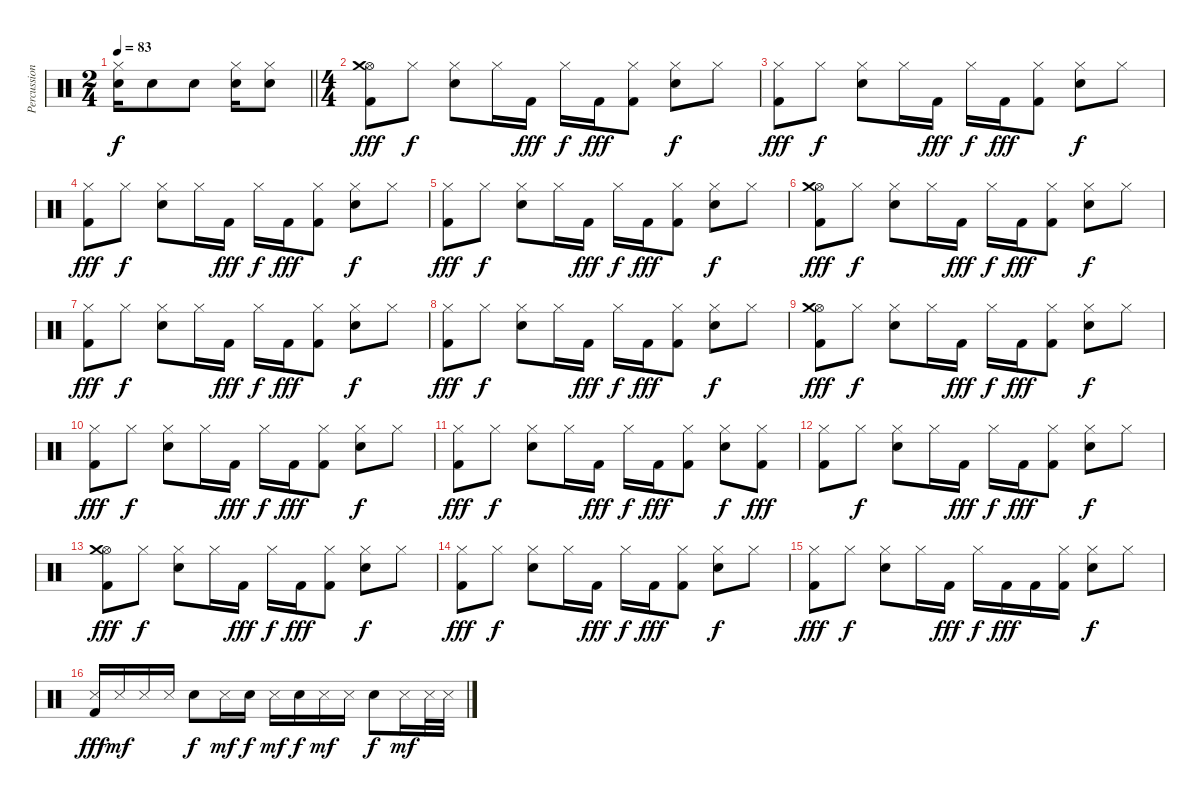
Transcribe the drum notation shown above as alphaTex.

\track ("Percussion" "Percussion") {instrument percussion}
\staff {score}
\articulation defaults
\ts (2 4)
\tempo 83
\clef neutral
\barLineRight lightlight
\ks c
("Electric Snare (hit)" "Hi-Hat (closed)").16{dy f} "Electric Snare (hit)".8 "Electric Snare (hit)".8 ("Electric Snare (hit)" "Hi-Hat (closed)").16 ("Electric Snare (hit)" "Hi-Hat (closed)").8 |
\ts (4 4)
("Kick (hit) 2" "Hi-Hat (open)" "Crash medium (hit)").8{dy fff} "Hi-Hat (closed)".8{dy f} ("Electric Snare (hit)" "Hi-Hat (closed)").8 "Hi-Hat (closed)".16 "Kick (hit) 2".16{dy fff} "Hi-Hat (closed)".16{dy f} "Kick (hit) 2".16{dy fff} ("Kick (hit) 2" "Hi-Hat (closed)").8 ("Electric Snare (hit)" "Hi-Hat (closed)").8{dy f} "Hi-Hat (closed)".8 |
("Kick (hit) 2" "Hi-Hat (closed)").8{dy fff} "Hi-Hat (closed)".8{dy f} ("Electric Snare (hit)" "Hi-Hat (closed)").8 "Hi-Hat (closed)".16 "Kick (hit) 2".16{dy fff} "Hi-Hat (closed)".16{dy f} "Kick (hit) 2".16{dy fff} ("Kick (hit) 2" "Hi-Hat (closed)").8 ("Electric Snare (hit)" "Hi-Hat (closed)").8{dy f} "Hi-Hat (closed)".8 |
("Kick (hit) 2" "Hi-Hat (closed)").8{dy fff} "Hi-Hat (closed)".8{dy f} ("Electric Snare (hit)" "Hi-Hat (closed)").8 "Hi-Hat (closed)".16 "Kick (hit) 2".16{dy fff} "Hi-Hat (closed)".16{dy f} "Kick (hit) 2".16{dy fff} ("Kick (hit) 2" "Hi-Hat (closed)").8 ("Electric Snare (hit)" "Hi-Hat (closed)").8{dy f} "Hi-Hat (closed)".8 |
("Kick (hit) 2" "Hi-Hat (closed)").8{dy fff} "Hi-Hat (closed)".8{dy f} ("Electric Snare (hit)" "Hi-Hat (closed)").8 "Hi-Hat (closed)".16 "Kick (hit) 2".16{dy fff} "Hi-Hat (closed)".16{dy f} "Kick (hit) 2".16{dy fff} ("Kick (hit) 2" "Hi-Hat (closed)").8 ("Electric Snare (hit)" "Hi-Hat (closed)").8{dy f} "Hi-Hat (closed)".8 |
("Kick (hit) 2" "Hi-Hat (open)" "Crash medium (hit)").8{dy fff} "Hi-Hat (closed)".8{dy f} ("Electric Snare (hit)" "Hi-Hat (closed)").8 "Hi-Hat (closed)".16 "Kick (hit) 2".16{dy fff} "Hi-Hat (closed)".16{dy f} "Kick (hit) 2".16{dy fff} ("Kick (hit) 2" "Hi-Hat (closed)").8 ("Electric Snare (hit)" "Hi-Hat (closed)").8{dy f} "Hi-Hat (closed)".8 |
("Kick (hit) 2" "Hi-Hat (closed)").8{dy fff} "Hi-Hat (closed)".8{dy f} ("Electric Snare (hit)" "Hi-Hat (closed)").8 "Hi-Hat (closed)".16 "Kick (hit) 2".16{dy fff} "Hi-Hat (closed)".16{dy f} "Kick (hit) 2".16{dy fff} ("Kick (hit) 2" "Hi-Hat (closed)").8 ("Electric Snare (hit)" "Hi-Hat (closed)").8{dy f} "Hi-Hat (closed)".8 |
("Kick (hit) 2" "Hi-Hat (closed)").8{dy fff} "Hi-Hat (closed)".8{dy f} ("Electric Snare (hit)" "Hi-Hat (closed)").8 "Hi-Hat (closed)".16 "Kick (hit) 2".16{dy fff} "Hi-Hat (closed)".16{dy f} "Kick (hit) 2".16{dy fff} ("Kick (hit) 2" "Hi-Hat (closed)").8 ("Electric Snare (hit)" "Hi-Hat (closed)").8{dy f} "Hi-Hat (closed)".8 |
("Kick (hit) 2" "Hi-Hat (open)" "Crash medium (hit)").8{dy fff} "Hi-Hat (closed)".8{dy f} ("Electric Snare (hit)" "Hi-Hat (closed)").8 "Hi-Hat (closed)".16 "Kick (hit) 2".16{dy fff} "Hi-Hat (closed)".16{dy f} "Kick (hit) 2".16{dy fff} ("Kick (hit) 2" "Hi-Hat (closed)").8 ("Electric Snare (hit)" "Hi-Hat (closed)").8{dy f} "Hi-Hat (closed)".8 |
("Kick (hit) 2" "Hi-Hat (closed)").8{dy fff} "Hi-Hat (closed)".8{dy f} ("Electric Snare (hit)" "Hi-Hat (closed)").8 "Hi-Hat (closed)".16 "Kick (hit) 2".16{dy fff} "Hi-Hat (closed)".16{dy f} "Kick (hit) 2".16{dy fff} ("Kick (hit) 2" "Hi-Hat (closed)").8 ("Electric Snare (hit)" "Hi-Hat (closed)").8{dy f} "Hi-Hat (closed)".8 |
("Kick (hit) 2" "Hi-Hat (closed)").8{dy fff} "Hi-Hat (closed)".8{dy f} ("Electric Snare (hit)" "Hi-Hat (closed)").8 "Hi-Hat (closed)".16 "Kick (hit) 2".16{dy fff} "Hi-Hat (closed)".16{dy f} "Kick (hit) 2".16{dy fff} ("Kick (hit) 2" "Hi-Hat (closed)").8 ("Electric Snare (hit)" "Hi-Hat (closed)").8{dy f} ("Kick (hit) 2" "Hi-Hat (closed)").8{dy fff} |
("Kick (hit) 2" "Hi-Hat (closed)").8 "Hi-Hat (closed)".8{dy f} ("Electric Snare (hit)" "Hi-Hat (closed)").8 "Hi-Hat (closed)".16 "Kick (hit) 2".16{dy fff} "Hi-Hat (closed)".16{dy f} "Kick (hit) 2".16{dy fff} ("Kick (hit) 2" "Hi-Hat (closed)").8 ("Electric Snare (hit)" "Hi-Hat (closed)").8{dy f} "Hi-Hat (closed)".8 |
("Kick (hit) 2" "Hi-Hat (open)" "Crash medium (hit)").8{dy fff} "Hi-Hat (closed)".8{dy f} ("Electric Snare (hit)" "Hi-Hat (closed)").8 "Hi-Hat (closed)".16 "Kick (hit) 2".16{dy fff} "Hi-Hat (closed)".16{dy f} "Kick (hit) 2".16{dy fff} ("Kick (hit) 2" "Hi-Hat (closed)").8 ("Electric Snare (hit)" "Hi-Hat (closed)").8{dy f} "Hi-Hat (closed)".8 |
("Kick (hit) 2" "Hi-Hat (closed)").8{dy fff} "Hi-Hat (closed)".8{dy f} ("Electric Snare (hit)" "Hi-Hat (closed)").8 "Hi-Hat (closed)".16 "Kick (hit) 2".16{dy fff} "Hi-Hat (closed)".16{dy f} "Kick (hit) 2".16{dy fff} ("Kick (hit) 2" "Hi-Hat (closed)").8 ("Electric Snare (hit)" "Hi-Hat (closed)").8{dy f} "Hi-Hat (closed)".8 |
("Kick (hit) 2" "Hi-Hat (closed)").8{dy fff} "Hi-Hat (closed)".8{dy f} ("Electric Snare (hit)" "Hi-Hat (closed)").8 "Hi-Hat (closed)".16 "Kick (hit) 2".16{dy fff} "Hi-Hat (closed)".16{dy f} "Kick (hit) 2".16{dy fff} "Kick (hit) 2".16 ("Kick (hit) 2" "Hi-Hat (closed)").16 ("Electric Snare (hit)" "Hi-Hat (closed)").8{dy f} "Hi-Hat (closed)".8 |
("Snare (side stick) 3" "Kick (hit) 2").16{dy fff} "Snare (side stick) 3".16{dy mf} "Snare (side stick) 3".16 "Snare (side stick) 3".16 "Electric Snare (hit)".8{dy f} "Snare (side stick) 3".16{dy mf} "Electric Snare (hit)".16{dy f} "Snare (side stick) 3".16{dy mf} "Electric Snare (hit)".16{dy f} "Snare (side stick) 3".16{dy mf} "Snare (side stick) 3".16 "Electric Snare (hit)".8{dy f} "Snare (side stick) 3".16{dy mf} "Snare (side stick) 3".32 "Snare (side stick) 3".32
